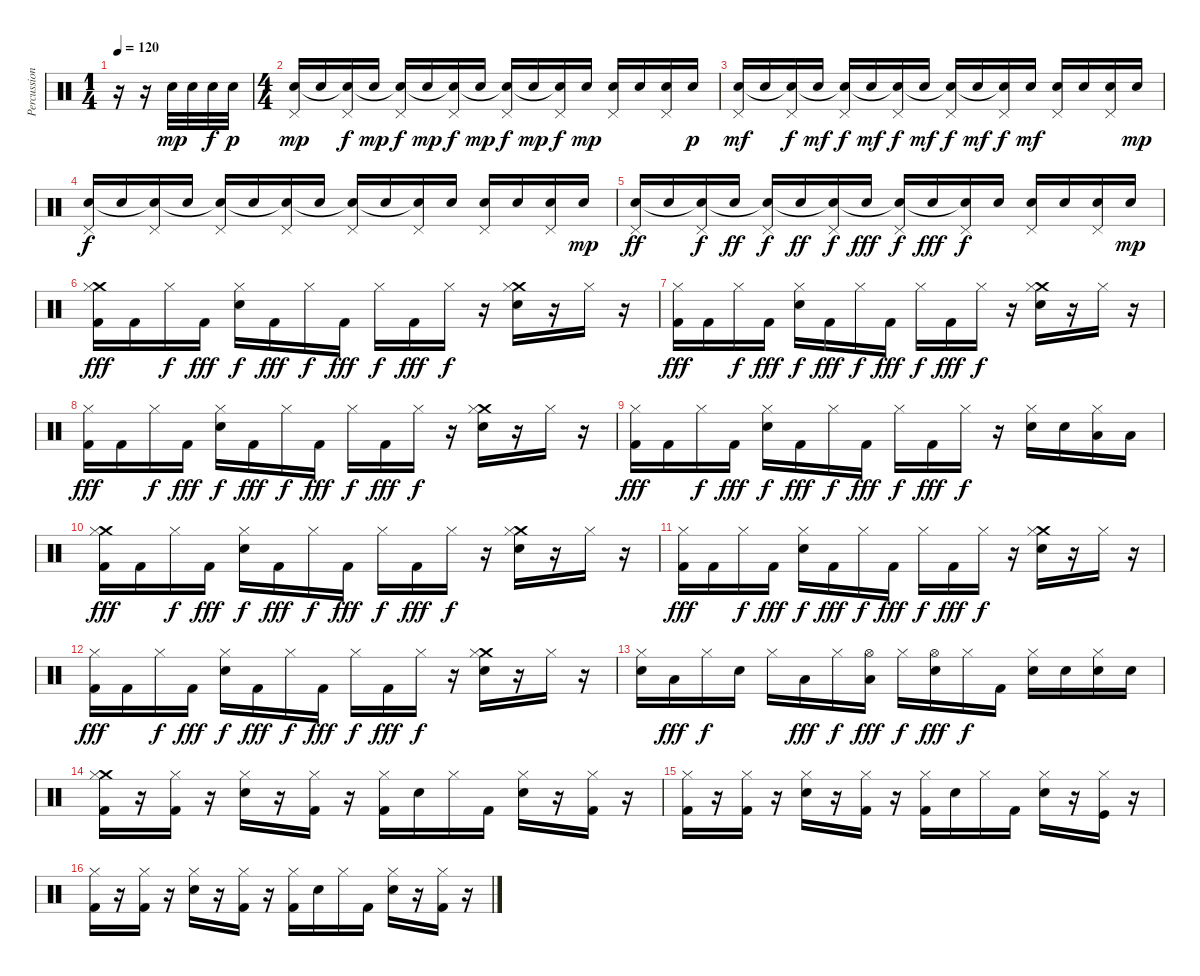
\track ("Percussion" "Percussion") {instrument percussion}
\staff {score}
\articulation defaults
\ts (1 4)
\tempo 120
\clef neutral
\ks c
r.16{dy mp} r.16 "Snare (hit) 2".32 "Snare (hit) 2".32 "Snare (hit) 2".32{dy f} "Snare (hit) 2".32{dy p} |
\ts (4 4)
("Pedal Hi-Hat (hit)" "Snare (hit) 2").16{dy mp} "Snare (hit) 2".16 ("Pedal Hi-Hat (hit)" "Snare (hit)"{t}).16{dy f} "Snare (hit) 2".16{dy mp} ("Pedal Hi-Hat (hit)" "Snare (hit)"{t}).16{dy f} "Snare (hit) 2".16{dy mp} ("Pedal Hi-Hat (hit)" "Snare (hit)"{t}).16{dy f} "Snare (hit) 2".16{dy mp} ("Pedal Hi-Hat (hit)" "Snare (hit)"{t}).16{dy f} "Snare (hit) 2".16{dy mp} ("Pedal Hi-Hat (hit)" "Snare (hit)"{t}).16{dy f} "Snare (hit) 2".16{dy mp} ("Pedal Hi-Hat (hit)" "Snare (hit) 2").16 "Snare (hit) 2".16 ("Pedal Hi-Hat (hit)" "Snare (hit) 2").16 "Snare (hit) 2".16{dy p} |
("Pedal Hi-Hat (hit)" "Snare (hit) 2").16{dy mf} "Snare (hit) 2".16 ("Pedal Hi-Hat (hit)" "Snare (hit)"{t}).16{dy f} "Snare (hit) 2".16{dy mf} ("Pedal Hi-Hat (hit)" "Snare (hit)"{t}).16{dy f} "Snare (hit) 2".16{dy mf} ("Pedal Hi-Hat (hit)" "Snare (hit)"{t}).16{dy f} "Snare (hit) 2".16{dy mf} ("Pedal Hi-Hat (hit)" "Snare (hit)"{t}).16{dy f} "Snare (hit) 2".16{dy mf} ("Pedal Hi-Hat (hit)" "Snare (hit)"{t}).16{dy f} "Snare (hit) 2".16{dy mf} ("Pedal Hi-Hat (hit)" "Snare (hit) 2").16 "Snare (hit) 2".16 ("Pedal Hi-Hat (hit)" "Snare (hit) 2").16 "Snare (hit) 2".16{dy mp} |
("Pedal Hi-Hat (hit)" "Snare (hit) 2").16{dy f} "Snare (hit) 2".16 ("Pedal Hi-Hat (hit)" "Snare (hit)"{t}).16 "Snare (hit) 2".16 ("Pedal Hi-Hat (hit)" "Snare (hit)"{t}).16 "Snare (hit) 2".16 ("Pedal Hi-Hat (hit)" "Snare (hit)"{t}).16 "Snare (hit) 2".16 ("Pedal Hi-Hat (hit)" "Snare (hit)"{t}).16 "Snare (hit) 2".16 ("Pedal Hi-Hat (hit)" "Snare (hit)"{t}).16 "Snare (hit) 2".16 ("Pedal Hi-Hat (hit)" "Snare (hit) 2").16 "Snare (hit) 2".16 ("Pedal Hi-Hat (hit)" "Snare (hit) 2").16 "Snare (hit) 2".16{dy mp} |
("Pedal Hi-Hat (hit)" "Snare (hit) 2").16{dy ff} "Snare (hit) 2".16 ("Pedal Hi-Hat (hit)" "Snare (hit)"{t}).16{dy f} "Snare (hit) 2".16{dy ff} ("Pedal Hi-Hat (hit)" "Snare (hit)"{t}).16{dy f} "Snare (hit) 2".16{dy ff} ("Pedal Hi-Hat (hit)" "Snare (hit)"{t}).16{dy f} "Snare (hit) 2".16{dy fff} ("Pedal Hi-Hat (hit)" "Snare (hit)"{t}).16{dy f} "Snare (hit) 2".16{dy fff} ("Pedal Hi-Hat (hit)" "Snare (hit)"{t}).16{dy f} "Snare (hit) 2".16 ("Pedal Hi-Hat (hit)" "Snare (hit) 2").16 "Snare (hit) 2".16 ("Pedal Hi-Hat (hit)" "Snare (hit) 2").16 "Snare (hit) 2".16{dy mp} |
("Crash medium (hit)" "Hi-Hat (closed)" "Kick (hit) 2").16{dy fff} "Kick (hit) 2".16 "Hi-Hat (closed)".16{dy f} "Kick (hit) 2".16{dy fff} ("Hi-Hat (closed)" "Snare (hit) 2").16{dy f} "Kick (hit) 2".16{dy fff} "Hi-Hat (closed)".16{dy f} "Kick (hit) 2".16{dy fff} "Hi-Hat (closed)".16{dy f} "Kick (hit) 2".16{dy fff} "Hi-Hat (closed)".16{dy f} r.16 ("Crash medium (hit)" "Hi-Hat (closed)" "Snare (hit) 2").16 r.16 "Hi-Hat (closed)".16 r.16 |
("Hi-Hat (closed)" "Kick (hit) 2").16{dy fff} "Kick (hit) 2".16 "Hi-Hat (closed)".16{dy f} "Kick (hit) 2".16{dy fff} ("Hi-Hat (closed)" "Snare (hit) 2").16{dy f} "Kick (hit) 2".16{dy fff} "Hi-Hat (closed)".16{dy f} "Kick (hit) 2".16{dy fff} "Hi-Hat (closed)".16{dy f} "Kick (hit) 2".16{dy fff} "Hi-Hat (closed)".16{dy f} r.16 ("Crash medium (hit)" "Hi-Hat (closed)" "Snare (hit) 2").16 r.16 "Hi-Hat (closed)".16 r.16 |
("Hi-Hat (closed)" "Kick (hit) 2").16{dy fff} "Kick (hit) 2".16 "Hi-Hat (closed)".16{dy f} "Kick (hit) 2".16{dy fff} ("Hi-Hat (closed)" "Snare (hit) 2").16{dy f} "Kick (hit) 2".16{dy fff} "Hi-Hat (closed)".16{dy f} "Kick (hit) 2".16{dy fff} "Hi-Hat (closed)".16{dy f} "Kick (hit) 2".16{dy fff} "Hi-Hat (closed)".16{dy f} r.16 ("Crash medium (hit)" "Hi-Hat (closed)" "Snare (hit) 2").16 r.16 "Hi-Hat (closed)".16 r.16 |
("Hi-Hat (closed)" "Kick (hit) 2").16{dy fff} "Kick (hit) 2".16 "Hi-Hat (closed)".16{dy f} "Kick (hit) 2".16{dy fff} ("Hi-Hat (closed)" "Snare (hit) 2").16{dy f} "Kick (hit) 2".16{dy fff} "Hi-Hat (closed)".16{dy f} "Kick (hit) 2".16{dy fff} "Hi-Hat (closed)".16{dy f} "Kick (hit) 2".16{dy fff} "Hi-Hat (closed)".16{dy f} r.16 ("Hi-Hat (closed)" "Snare (hit) 2").16 "Snare (hit) 2".16 ("Hi-Hat (closed)" "Low Floor Tom (hit)").16 "Low Floor Tom (hit)".16 |
("Crash medium (hit)" "Hi-Hat (closed)" "Kick (hit) 2").16{dy fff} "Kick (hit) 2".16 "Hi-Hat (closed)".16{dy f} "Kick (hit) 2".16{dy fff} ("Hi-Hat (closed)" "Snare (hit) 2").16{dy f} "Kick (hit) 2".16{dy fff} "Hi-Hat (closed)".16{dy f} "Kick (hit) 2".16{dy fff} "Hi-Hat (closed)".16{dy f} "Kick (hit) 2".16{dy fff} "Hi-Hat (closed)".16{dy f} r.16 ("Crash medium (hit)" "Hi-Hat (closed)" "Snare (hit) 2").16 r.16 "Hi-Hat (closed)".16 r.16 |
("Hi-Hat (closed)" "Kick (hit) 2").16{dy fff} "Kick (hit) 2".16 "Hi-Hat (closed)".16{dy f} "Kick (hit) 2".16{dy fff} ("Hi-Hat (closed)" "Snare (hit) 2").16{dy f} "Kick (hit) 2".16{dy fff} "Hi-Hat (closed)".16{dy f} "Kick (hit) 2".16{dy fff} "Hi-Hat (closed)".16{dy f} "Kick (hit) 2".16{dy fff} "Hi-Hat (closed)".16{dy f} r.16 ("Crash medium (hit)" "Hi-Hat (closed)" "Snare (hit) 2").16 r.16 "Hi-Hat (closed)".16 r.16 |
("Hi-Hat (closed)" "Kick (hit) 2").16{dy fff} "Kick (hit) 2".16 "Hi-Hat (closed)".16{dy f} "Kick (hit) 2".16{dy fff} ("Hi-Hat (closed)" "Snare (hit) 2").16{dy f} "Kick (hit) 2".16{dy fff} "Hi-Hat (closed)".16{dy f} "Kick (hit) 2".16{dy fff} "Hi-Hat (closed)".16{dy f} "Kick (hit) 2".16{dy fff} "Hi-Hat (closed)".16{dy f} r.16 ("Crash medium (hit)" "Hi-Hat (closed)" "Snare (hit) 2").16 r.16 "Hi-Hat (closed)".16 r.16 |
("Hi-Hat (closed)" "Snare (hit) 2").16 "Low Floor Tom (hit)".16{dy fff} "Hi-Hat (closed)".16{dy f} "Snare (hit) 2".16 "Hi-Hat (closed)".16 "Low Floor Tom (hit)".16{dy fff} "Hi-Hat (closed)".16{dy f} ("Hi-Hat (open)" "Low Floor Tom (hit)").16{dy fff} "Hi-Hat (closed)".16{dy f} ("Hi-Hat (open)" "Snare (hit) 2").16{dy fff} "Hi-Hat (closed)".16{dy f} "Kick (hit) 2".16 ("Hi-Hat (closed)" "Snare (hit) 2").16 "Snare (hit) 2".16 ("Hi-Hat (closed)" "Snare (hit) 2").16 "Snare (hit) 2".16 |
("Crash medium (hit)" "Hi-Hat (closed)" "Kick (hit) 2").16 r.16 ("Hi-Hat (closed)" "Kick (hit) 2").16 r.16 ("Hi-Hat (closed)" "Snare (hit) 2").16 r.16 ("Hi-Hat (closed)" "Kick (hit) 2").16 r.16 ("Hi-Hat (closed)" "Kick (hit) 2").16 "Snare (hit) 2".16 "Hi-Hat (closed)".16 "Kick (hit) 2".16 ("Hi-Hat (closed)" "Snare (hit) 2").16 r.16 ("Hi-Hat (closed)" "Kick (hit) 2").16 r.16 |
("Hi-Hat (closed)" "Kick (hit) 2").16 r.16 ("Hi-Hat (closed)" "Kick (hit) 2").16 r.16 ("Hi-Hat (closed)" "Snare (hit) 2").16 r.16 ("Hi-Hat (closed)" "Kick (hit) 2").16 r.16 ("Hi-Hat (closed)" "Kick (hit) 2").16 "Snare (hit) 2".16 "Hi-Hat (closed)".16 "Kick (hit) 2".16 ("Hi-Hat (closed)" "Snare (hit) 2").16 r.16 ("Hi-Hat (closed)" "Kick (hit)").16 r.16 |
("Hi-Hat (closed)" "Kick (hit) 2").16 r.16 ("Hi-Hat (closed)" "Kick (hit) 2").16 r.16 ("Hi-Hat (closed)" "Snare (hit) 2").16 r.16 ("Hi-Hat (closed)" "Kick (hit) 2").16 r.16 ("Hi-Hat (closed)" "Kick (hit) 2").16 "Snare (hit) 2".16 "Hi-Hat (closed)".16 "Kick (hit) 2".16 ("Hi-Hat (closed)" "Snare (hit) 2").16 r.16 ("Hi-Hat (closed)" "Kick (hit) 2").16 r.16
